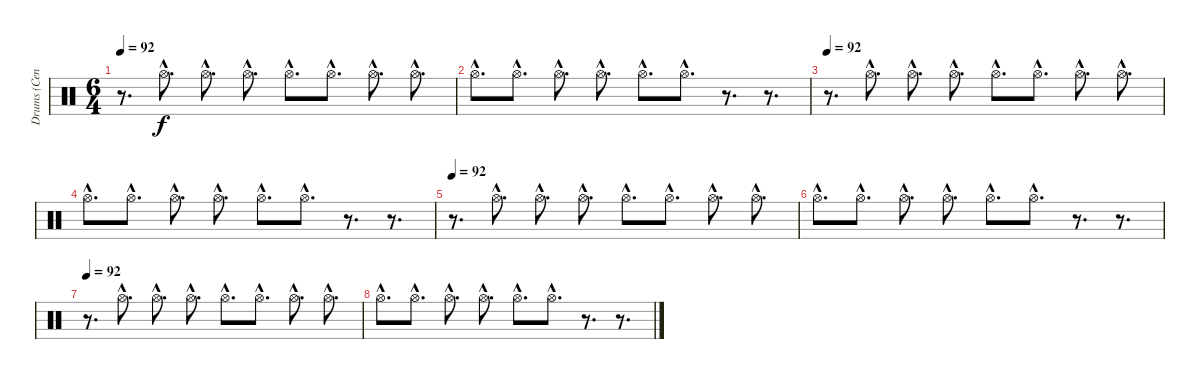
\track ("Drums (Cenk)" "Drums (Cen") {instrument percussion}
\staff {score}
\articulation defaults
\ts (6 4)
\tempo 92
\clef neutral
\ks c
r.8{d dy f} "Hi-Hat (open)"{hac}.8{d} "Hi-Hat (open)"{hac}.8{d} "Hi-Hat (open)"{hac}.8{d} "Hi-Hat (open)"{hac}.8{d} "Hi-Hat (open)"{hac}.8{d} "Hi-Hat (open)"{hac}.8{d} "Hi-Hat (open)"{hac}.8{d} |
"Hi-Hat (open)"{hac}.8{d} "Hi-Hat (open)"{hac}.8{d} "Hi-Hat (open)"{hac}.8{d} "Hi-Hat (open)"{hac}.8{d} "Hi-Hat (open)"{hac}.8{d} "Hi-Hat (open)"{hac}.8{d} r.8{d} r.8{d} |
\tempo 92
r.8{d} "Hi-Hat (open)"{hac}.8{d} "Hi-Hat (open)"{hac}.8{d} "Hi-Hat (open)"{hac}.8{d} "Hi-Hat (open)"{hac}.8{d} "Hi-Hat (open)"{hac}.8{d} "Hi-Hat (open)"{hac}.8{d} "Hi-Hat (open)"{hac}.8{d} |
"Hi-Hat (open)"{hac}.8{d} "Hi-Hat (open)"{hac}.8{d} "Hi-Hat (open)"{hac}.8{d} "Hi-Hat (open)"{hac}.8{d} "Hi-Hat (open)"{hac}.8{d} "Hi-Hat (open)"{hac}.8{d} r.8{d} r.8{d} |
\tempo 92
r.8{d} "Hi-Hat (open)"{hac}.8{d} "Hi-Hat (open)"{hac}.8{d} "Hi-Hat (open)"{hac}.8{d} "Hi-Hat (open)"{hac}.8{d} "Hi-Hat (open)"{hac}.8{d} "Hi-Hat (open)"{hac}.8{d} "Hi-Hat (open)"{hac}.8{d} |
"Hi-Hat (open)"{hac}.8{d} "Hi-Hat (open)"{hac}.8{d} "Hi-Hat (open)"{hac}.8{d} "Hi-Hat (open)"{hac}.8{d} "Hi-Hat (open)"{hac}.8{d} "Hi-Hat (open)"{hac}.8{d} r.8{d} r.8{d} |
\tempo 92
r.8{d} "Hi-Hat (open)"{hac}.8{d} "Hi-Hat (open)"{hac}.8{d} "Hi-Hat (open)"{hac}.8{d} "Hi-Hat (open)"{hac}.8{d} "Hi-Hat (open)"{hac}.8{d} "Hi-Hat (open)"{hac}.8{d} "Hi-Hat (open)"{hac}.8{d} |
"Hi-Hat (open)"{hac}.8{d} "Hi-Hat (open)"{hac}.8{d} "Hi-Hat (open)"{hac}.8{d} "Hi-Hat (open)"{hac}.8{d} "Hi-Hat (open)"{hac}.8{d} "Hi-Hat (open)"{hac}.8{d} r.8{d} r.8{d}
